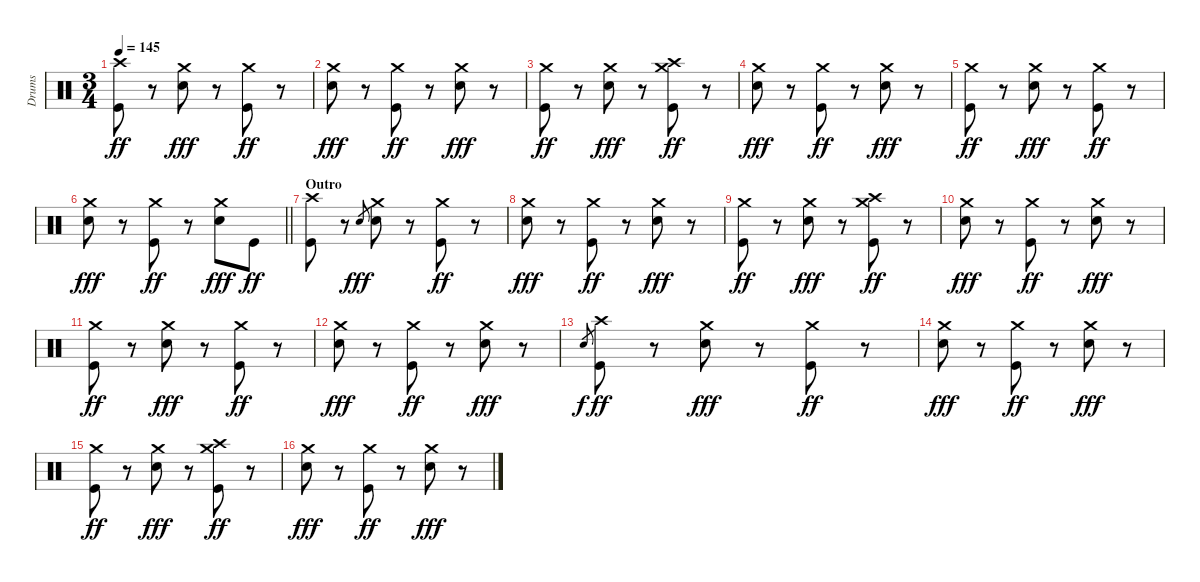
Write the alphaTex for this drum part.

\track ("Drums" "Drums") {instrument percussion}
\staff {score}
\articulation defaults
\ts (3 4)
\tempo 145
\clef neutral
\ks c
("Crash high (hit)" "Kick (hit)").8{dy ff} r.8 ("Crash medium (hit)" "Electric Snare (hit)").8{dy fff} r.8 ("Crash medium (hit)" "Kick (hit)").8{dy ff} r.8 |
("Crash medium (hit)" "Electric Snare (hit)").8{dy fff} r.8 ("Crash medium (hit)" "Kick (hit)").8{dy ff} r.8 ("Crash medium (hit)" "Electric Snare (hit)").8{dy fff} r.8 |
("Crash medium (hit)" "Kick (hit)").8{dy ff} r.8 ("Crash medium (hit)" "Electric Snare (hit)").8{dy fff} r.8 ("Crash high (hit)" "Crash medium (hit)" "Kick (hit)").8{dy ff} r.8 |
("Crash medium (hit)" "Electric Snare (hit)").8{dy fff} r.8 ("Crash medium (hit)" "Kick (hit)").8{dy ff} r.8 ("Crash medium (hit)" "Electric Snare (hit)").8{dy fff} r.8 |
("Crash medium (hit)" "Kick (hit)").8{dy ff} r.8 ("Crash medium (hit)" "Electric Snare (hit)").8{dy fff} r.8 ("Crash medium (hit)" "Kick (hit)").8{dy ff} r.8 |
\barLineRight lightlight
("Crash medium (hit)" "Electric Snare (hit)").8{dy fff} r.8 ("Crash medium (hit)" "Kick (hit)").8{dy ff} r.8 ("Crash medium (hit)" "Electric Snare (hit)").8{dy fff} "Kick (hit)".8{dy ff} |
\section ("" "Outro")
("Crash high (hit)" "Kick (hit)").8 r.8 "Electric Snare (hit)".8{gr dy fff} ("Crash medium (hit)" "Electric Snare (hit)").8 r.8 ("Crash medium (hit)" "Kick (hit)").8{dy ff} r.8 |
("Crash medium (hit)" "Electric Snare (hit)").8{dy fff} r.8 ("Crash medium (hit)" "Kick (hit)").8{dy ff} r.8 ("Crash medium (hit)" "Electric Snare (hit)").8{dy fff} r.8 |
("Crash medium (hit)" "Kick (hit)").8{dy ff} r.8 ("Crash medium (hit)" "Electric Snare (hit)").8{dy fff} r.8 ("Crash high (hit)" "Crash medium (hit)" "Kick (hit)").8{dy ff} r.8 |
("Crash medium (hit)" "Electric Snare (hit)").8{dy fff} r.8 ("Crash medium (hit)" "Kick (hit)").8{dy ff} r.8 ("Crash medium (hit)" "Electric Snare (hit)").8{dy fff} r.8 |
("Crash medium (hit)" "Kick (hit)").8{dy ff} r.8 ("Crash medium (hit)" "Electric Snare (hit)").8{dy fff} r.8 ("Crash medium (hit)" "Kick (hit)").8{dy ff} r.8 |
("Crash medium (hit)" "Electric Snare (hit)").8{dy fff} r.8 ("Crash medium (hit)" "Kick (hit)").8{dy ff} r.8 ("Crash medium (hit)" "Electric Snare (hit)").8{dy fff} r.8 |
"Electric Snare (hit)".8{gr dy f} ("Crash high (hit)" "Kick (hit)").8{dy ff} r.8 ("Crash medium (hit)" "Electric Snare (hit)").8{dy fff} r.8 ("Crash medium (hit)" "Kick (hit)").8{dy ff} r.8 |
("Crash medium (hit)" "Electric Snare (hit)").8{dy fff} r.8 ("Crash medium (hit)" "Kick (hit)").8{dy ff} r.8 ("Crash medium (hit)" "Electric Snare (hit)").8{dy fff} r.8 |
("Crash medium (hit)" "Kick (hit)").8{dy ff} r.8 ("Crash medium (hit)" "Electric Snare (hit)").8{dy fff} r.8 ("Crash high (hit)" "Crash medium (hit)" "Kick (hit)").8{dy ff} r.8 |
("Crash medium (hit)" "Electric Snare (hit)").8{dy fff} r.8 ("Crash medium (hit)" "Kick (hit)").8{dy ff} r.8 ("Crash medium (hit)" "Electric Snare (hit)").8{dy fff} r.8
